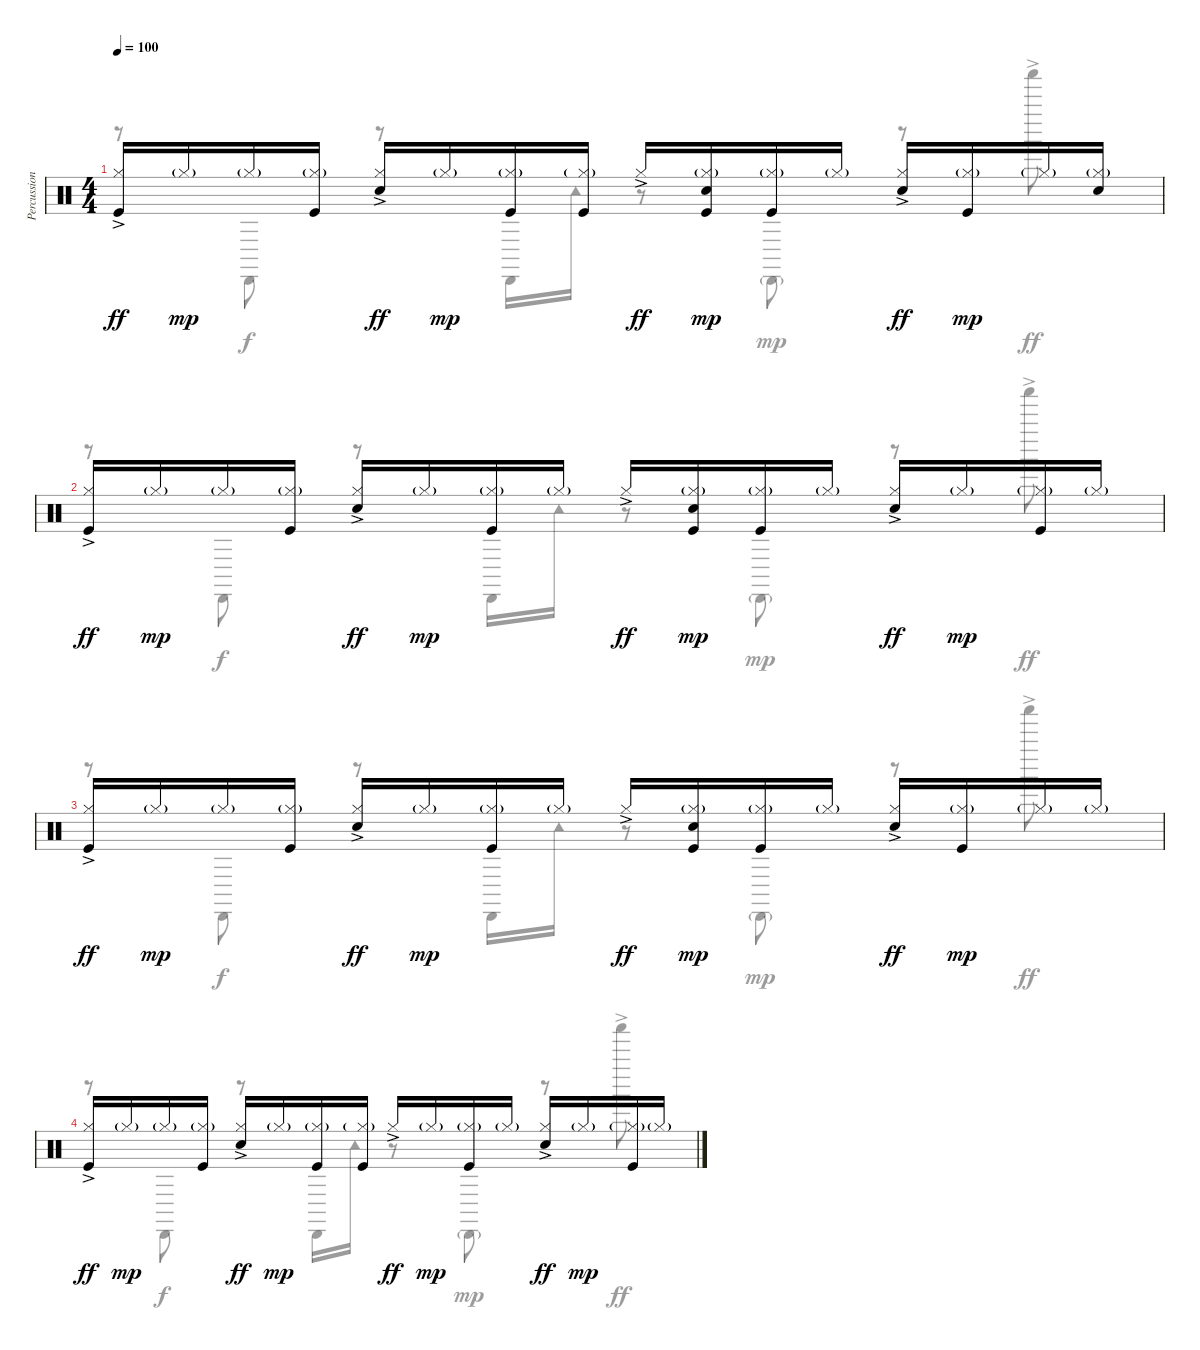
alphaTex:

\track ("Percussions" "Percussion") {instrument percussion}
\staff {score}
\articulation defaults
\voice
\ts (4 4)
\tempo 100
\clef neutral
\ks c
("Kick (hit)" "Hi-Hat (closed)"{ac}).16{dy ff} "Hi-Hat (closed)"{g}.16{dy mp} "Hi-Hat (closed)"{g}.16 ("Kick (hit)" "Hi-Hat (closed)"{g}).16 ("Electric Snare (hit)" "Hi-Hat (closed)"{ac}).16{dy ff} "Hi-Hat (closed)"{g}.16{dy mp} ("Kick (hit)" "Hi-Hat (closed)"{g}).16 ("Kick (hit)" "Hi-Hat (closed)"{g}).16 "Hi-Hat (closed)"{ac}.16{dy ff} ("Kick (hit)" "Electric Snare (hit)" "Hi-Hat (closed)"{g}).16{dy mp} ("Kick (hit)" "Hi-Hat (closed)"{g}).16 "Hi-Hat (closed)"{g}.16 ("Snare (hit) 2" "Hi-Hat (closed)"{ac}).16{dy ff} ("Kick (hit)" "Hi-Hat (closed)"{g}).16{dy mp} "Hi-Hat (closed)"{g}.16 ("Snare (hit) 2" "Hi-Hat (closed)"{g}).16 |
("Kick (hit)" "Hi-Hat (closed)"{ac}).16{dy ff} "Hi-Hat (closed)"{g}.16{dy mp} "Hi-Hat (closed)"{g}.16 ("Kick (hit)" "Hi-Hat (closed)"{g}).16 ("Electric Snare (hit)" "Hi-Hat (closed)"{ac}).16{dy ff} "Hi-Hat (closed)"{g}.16{dy mp} ("Kick (hit)" "Hi-Hat (closed)"{g}).16 "Hi-Hat (closed)"{g}.16 "Hi-Hat (closed)"{ac}.16{dy ff} ("Kick (hit)" "Electric Snare (hit)" "Hi-Hat (closed)"{g}).16{dy mp} ("Kick (hit)" "Hi-Hat (closed)"{g}).16 "Hi-Hat (closed)"{g}.16 ("Snare (hit) 2" "Hi-Hat (closed)"{ac}).16{dy ff} "Hi-Hat (closed)"{g}.16{dy mp} ("Kick (hit)" "Hi-Hat (closed)"{g}).16 "Hi-Hat (closed)"{g}.16 |
("Kick (hit)" "Hi-Hat (closed)"{ac}).16{dy ff} "Hi-Hat (closed)"{g}.16{dy mp} "Hi-Hat (closed)"{g}.16 ("Kick (hit)" "Hi-Hat (closed)"{g}).16 ("Electric Snare (hit)" "Hi-Hat (closed)"{ac}).16{dy ff} "Hi-Hat (closed)"{g}.16{dy mp} ("Kick (hit)" "Hi-Hat (closed)"{g}).16 "Hi-Hat (closed)"{g}.16 "Hi-Hat (closed)"{ac}.16{dy ff} ("Kick (hit)" "Electric Snare (hit)" "Hi-Hat (closed)"{g}).16{dy mp} ("Kick (hit)" "Hi-Hat (closed)"{g}).16 "Hi-Hat (closed)"{g}.16 ("Snare (hit) 2" "Hi-Hat (closed)"{ac}).16{dy ff} ("Kick (hit)" "Hi-Hat (closed)"{g}).16{dy mp} "Hi-Hat (closed)"{g}.16 "Hi-Hat (closed)"{g}.16 |
("Kick (hit)" "Hi-Hat (closed)"{ac}).16{dy ff} "Hi-Hat (closed)"{g}.16{dy mp} "Hi-Hat (closed)"{g}.16 ("Kick (hit)" "Hi-Hat (closed)"{g}).16 ("Electric Snare (hit)" "Hi-Hat (closed)"{ac}).16{dy ff} "Hi-Hat (closed)"{g}.16{dy mp} ("Kick (hit)" "Hi-Hat (closed)"{g}).16 ("Kick (hit)" "Hi-Hat (closed)"{g}).16 "Hi-Hat (closed)"{ac}.16{dy ff} "Hi-Hat (closed)"{g}.16{dy mp} ("Kick (hit)" "Hi-Hat (closed)"{g}).16 "Hi-Hat (closed)"{g}.16 ("Snare (hit) 2" "Hi-Hat (closed)"{ac}).16{dy ff} "Hi-Hat (closed)"{g}.16{dy mp} ("Kick (hit)" "Hi-Hat (closed)"{g}).16 "Hi-Hat (closed)"{g}.16
\voice
\clef neutral
\ottava regular
\simile none
\ks c
r.8{dy ff} "Cabasa (hit)".8{dy f} r.8 "Cabasa (hit)".16 "Tambourine (hit)".16 r.8 "Cabasa (hit)"{g}.8{dy mp} r.8 "Shaker (hit)"{ac}.8{dy ff} |
r.8 "Cabasa (hit)".8{dy f} r.8 "Cabasa (hit)".16 "Tambourine (hit)".16 r.8 "Cabasa (hit)"{g}.8{dy mp} r.8 "Shaker (hit)"{ac}.8{dy ff} |
r.8 "Cabasa (hit)".8{dy f} r.8 "Cabasa (hit)".16 "Tambourine (hit)".16 r.8 "Cabasa (hit)"{g}.8{dy mp} r.8 "Shaker (hit)"{ac}.8{dy ff} |
r.8 "Cabasa (hit)".8{dy f} r.8 "Cabasa (hit)".16 "Tambourine (hit)".16 r.8 "Cabasa (hit)"{g}.8{dy mp} r.8 "Shaker (hit)"{ac}.8{dy ff}
